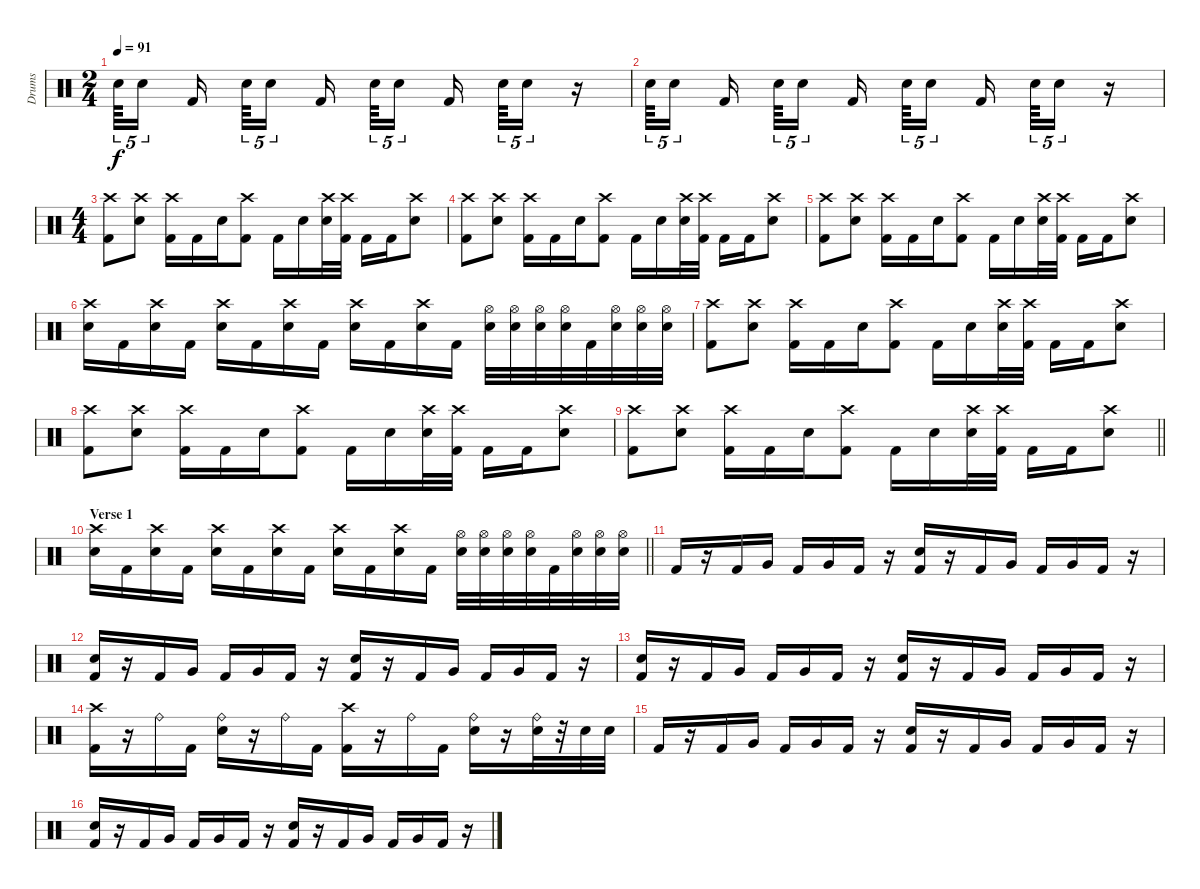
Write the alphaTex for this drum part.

\track ("Drums" "Drums") {instrument percussion}
\staff {score}
\articulation defaults
\ts (2 4)
\tempo 91
\clef neutral
\ks c "Snare (hit) 2".64{tu (5 4) dy f} "Electric Snare (hit)".16{tu (5 4) beam splitsecondary} "Kick (hit) 2".16{beam splitsecondary} "Snare (hit) 2".64{tu (5 4)} "Electric Snare (hit)".16{tu (5 4) beam splitsecondary} "Kick (hit) 2".16 "Snare (hit) 2".64{tu (5 4)} "Electric Snare (hit)".16{tu (5 4) beam splitsecondary} "Kick (hit) 2".16{beam splitsecondary} "Snare (hit) 2".64{tu (5 4)} "Electric Snare (hit)".16{tu (5 4)}
r.16 |
"Snare (hit) 2".64{tu (5 4)} "Electric Snare (hit)".16{tu (5 4) beam splitsecondary} "Kick (hit) 2".16{beam splitsecondary} "Snare (hit) 2".64{tu (5 4)} "Electric Snare (hit)".16{tu (5 4) beam splitsecondary} "Kick (hit) 2".16 "Snare (hit) 2".64{tu (5 4)} "Electric Snare (hit)".16{tu (5 4) beam splitsecondary} "Kick (hit) 2".16{beam splitsecondary} "Snare (hit) 2".64{tu (5 4)} "Electric Snare (hit)".16{tu (5 4)} r.16 |
\ts (4 4)
("Crash high (hit)" "Kick (hit) 2").8 ("Crash high (hit)" "Electric Snare (hit)").8 ("Crash high (hit)" "Kick (hit) 2").16 "Kick (hit) 2".16 "Electric Snare (hit)".16 ("Crash high (hit)" "Kick (hit) 2").8 "Kick (hit) 2".16 "Electric Snare (hit)".16 ("Crash high (hit)" "Electric Snare (hit)").32 ("Crash high (hit)" "Kick (hit) 2").32 "Kick (hit) 2".16 "Kick (hit) 2".16 ("Crash high (hit)" "Electric Snare (hit)").8 |
("Crash high (hit)" "Kick (hit) 2").8 ("Crash high (hit)" "Electric Snare (hit)").8 ("Crash high (hit)" "Kick (hit) 2").16 "Kick (hit) 2".16 "Electric Snare (hit)".16 ("Crash high (hit)" "Kick (hit) 2").8 "Kick (hit) 2".16 "Electric Snare (hit)".16 ("Crash high (hit)" "Electric Snare (hit)").32 ("Crash high (hit)" "Kick (hit) 2").32 "Kick (hit) 2".16 "Kick (hit) 2".16 ("Crash high (hit)" "Electric Snare (hit)").8 |
("Crash high (hit)" "Kick (hit) 2").8 ("Crash high (hit)" "Electric Snare (hit)").8 ("Crash high (hit)" "Kick (hit) 2").16 "Kick (hit) 2".16 "Electric Snare (hit)".16 ("Crash high (hit)" "Kick (hit) 2").8 "Kick (hit) 2".16 "Electric Snare (hit)".16 ("Crash high (hit)" "Electric Snare (hit)").32 ("Crash high (hit)" "Kick (hit) 2").32 "Kick (hit) 2".16 "Kick (hit) 2".16 ("Crash high (hit)" "Electric Snare (hit)").8 |
("Crash high (hit)" "Electric Snare (hit)").16 "Kick (hit) 2".16 ("Crash high (hit)" "Electric Snare (hit)").16 "Kick (hit) 2".16 ("Crash high (hit)" "Electric Snare (hit)").16 "Kick (hit) 2".16 ("Crash high (hit)" "Electric Snare (hit)").16 "Kick (hit) 2".16 ("Crash high (hit)" "Electric Snare (hit)").16 "Kick (hit) 2".16 ("Crash high (hit)" "Electric Snare (hit)").16 "Kick (hit) 2".16 ("Hi-Hat (open)" "Electric Snare (hit)").32 ("Hi-Hat (open)" "Electric Snare (hit)").32 ("Hi-Hat (open)" "Electric Snare (hit)").32 ("Hi-Hat (open)" "Electric Snare (hit)").32 "Kick (hit) 2".32 ("Hi-Hat (open)" "Electric Snare (hit)").32 ("Hi-Hat (open)" "Electric Snare (hit)").32 ("Hi-Hat (open)" "Electric Snare (hit)").32 |
("Crash high (hit)" "Kick (hit) 2").8 ("Crash high (hit)" "Electric Snare (hit)").8 ("Crash high (hit)" "Kick (hit) 2").16 "Kick (hit) 2".16 "Electric Snare (hit)".16 ("Crash high (hit)" "Kick (hit) 2").8 "Kick (hit) 2".16 "Electric Snare (hit)".16 ("Crash high (hit)" "Electric Snare (hit)").32 ("Crash high (hit)" "Kick (hit) 2").32 "Kick (hit) 2".16 "Kick (hit) 2".16 ("Crash high (hit)" "Electric Snare (hit)").8 |
("Crash high (hit)" "Kick (hit) 2").8 ("Crash high (hit)" "Electric Snare (hit)").8 ("Crash high (hit)" "Kick (hit) 2").16 "Kick (hit) 2".16 "Electric Snare (hit)".16 ("Crash high (hit)" "Kick (hit) 2").8 "Kick (hit) 2".16 "Electric Snare (hit)".16 ("Crash high (hit)" "Electric Snare (hit)").32 ("Crash high (hit)" "Kick (hit) 2").32 "Kick (hit) 2".16 "Kick (hit) 2".16 ("Crash high (hit)" "Electric Snare (hit)").8 |
\barLineRight lightlight
("Crash high (hit)" "Kick (hit) 2").8 ("Crash high (hit)" "Electric Snare (hit)").8 ("Crash high (hit)" "Kick (hit) 2").16 "Kick (hit) 2".16 "Electric Snare (hit)".16 ("Crash high (hit)" "Kick (hit) 2").8 "Kick (hit) 2".16 "Electric Snare (hit)".16 ("Crash high (hit)" "Electric Snare (hit)").32 ("Crash high (hit)" "Kick (hit) 2").32 "Kick (hit) 2".16 "Kick (hit) 2".16 ("Crash high (hit)" "Electric Snare (hit)").8 |
\section ("" "Verse 1")
\barLineRight lightlight
("Crash high (hit)" "Electric Snare (hit)").16 "Kick (hit) 2".16 ("Crash high (hit)" "Electric Snare (hit)").16 "Kick (hit) 2".16 ("Crash high (hit)" "Electric Snare (hit)").16 "Kick (hit) 2".16 ("Crash high (hit)" "Electric Snare (hit)").16 "Kick (hit) 2".16 ("Crash high (hit)" "Electric Snare (hit)").16 "Kick (hit) 2".16 ("Crash high (hit)" "Electric Snare (hit)").16 "Kick (hit) 2".16 ("Hi-Hat (open)" "Electric Snare (hit)").32 ("Hi-Hat (open)" "Electric Snare (hit)").32 ("Hi-Hat (open)" "Electric Snare (hit)").32 ("Hi-Hat (open)" "Electric Snare (hit)").32 "Kick (hit) 2".32 ("Hi-Hat (open)" "Electric Snare (hit)").32 ("Hi-Hat (open)" "Electric Snare (hit)").32 ("Hi-Hat (open)" "Electric Snare (hit)").32 |
"Kick (hit) 2".16 r.16 "Kick (hit) 2".16 "Very Low Tom (hit)".16 "Kick (hit) 2".16 "Very Low Tom (hit)".16 "Kick (hit) 2".16 r.16 ("Electric Snare (hit)" "Kick (hit) 2").16 r.16 "Kick (hit) 2".16 "Very Low Tom (hit)".16 "Kick (hit) 2".16 "Very Low Tom (hit)".16 "Kick (hit) 2".16 r.16 |
("Electric Snare (hit)" "Kick (hit) 2").16 r.16 "Kick (hit) 2".16 "Very Low Tom (hit)".16 "Kick (hit) 2".16 "Very Low Tom (hit)".16 "Kick (hit) 2".16 r.16 ("Electric Snare (hit)" "Kick (hit) 2").16 r.16 "Kick (hit) 2".16 "Very Low Tom (hit)".16 "Kick (hit) 2".16 "Very Low Tom (hit)".16 "Kick (hit) 2".16 r.16 |
("Electric Snare (hit)" "Kick (hit) 2").16 r.16 "Kick (hit) 2".16 "Very Low Tom (hit)".16 "Kick (hit) 2".16 "Very Low Tom (hit)".16 "Kick (hit) 2".16 r.16 ("Electric Snare (hit)" "Kick (hit) 2").16 r.16 "Kick (hit) 2".16 "Very Low Tom (hit)".16 "Kick (hit) 2".16 "Very Low Tom (hit)".16 "Kick (hit) 2".16 r.16 |
("Crash high (hit)" "Kick (hit) 2").16 r.16 "Ride (bell)".16 "Kick (hit) 2".16 ("Ride (bell)" "Electric Snare (hit)").16 r.16 "Ride (bell)".16 "Kick (hit) 2".16 ("Crash high (hit)" "Kick (hit) 2").16 r.16 "Ride (bell)".16 "Kick (hit) 2".16 ("Ride (bell)" "Electric Snare (hit)").16 r.16 ("Ride (bell)" "Electric Snare (hit)").32 r.32 "Electric Snare (hit)".32 "Electric Snare (hit)".32 |
"Kick (hit) 2".16 r.16 "Kick (hit) 2".16 "Very Low Tom (hit)".16 "Kick (hit) 2".16 "Very Low Tom (hit)".16 "Kick (hit) 2".16 r.16 ("Electric Snare (hit)" "Kick (hit) 2").16 r.16 "Kick (hit) 2".16 "Very Low Tom (hit)".16 "Kick (hit) 2".16 "Very Low Tom (hit)".16 "Kick (hit) 2".16 r.16 |
("Electric Snare (hit)" "Kick (hit) 2").16 r.16 "Kick (hit) 2".16 "Very Low Tom (hit)".16 "Kick (hit) 2".16 "Very Low Tom (hit)".16 "Kick (hit) 2".16 r.16 ("Electric Snare (hit)" "Kick (hit) 2").16 r.16 "Kick (hit) 2".16 "Very Low Tom (hit)".16 "Kick (hit) 2".16 "Very Low Tom (hit)".16 "Kick (hit) 2".16 r.16
